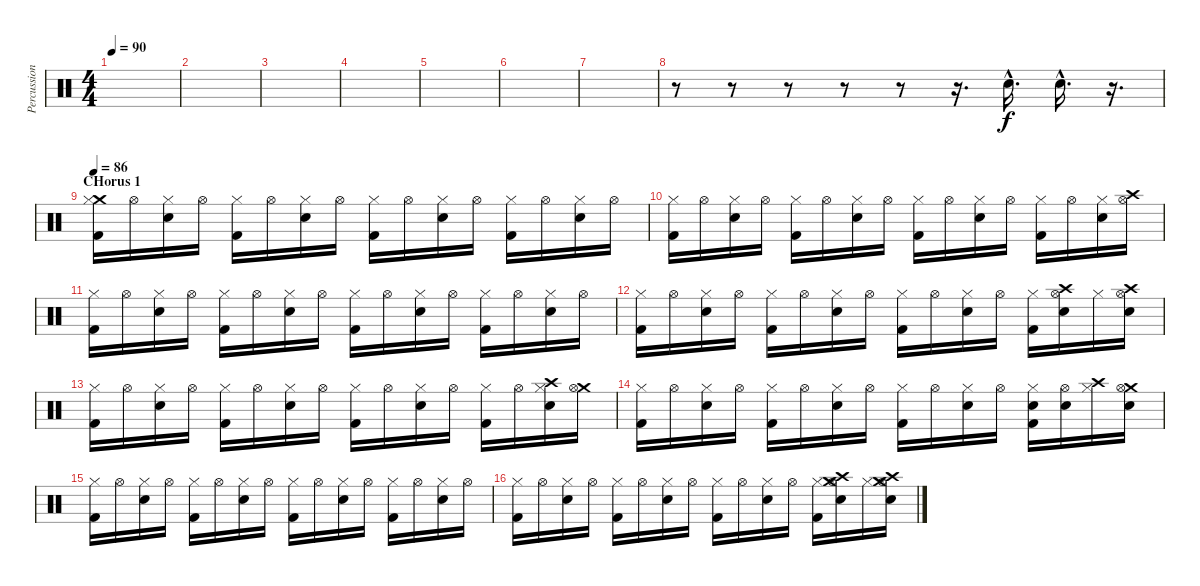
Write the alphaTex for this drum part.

\track ("Percussion" "Percussion") {instrument percussion}
\staff {score}
\articulation defaults
\ts (4 4)
\tempo 90
\clef neutral
\ks c
|
|
|
|
|
|
|
r.8 r.8 r.8 r.8 r.8 r.16{d} "Electric Snare (hit)"{hac}.16{d} "Electric Snare (hit)"{hac}.16{d} r.16{d} |
\section ("" "CHorus 1")
\tempo 86
("Crash medium (hit)" "Hi-Hat (closed)" "Kick (hit) 2").16 "Hi-Hat (open)".16 ("Hi-Hat (closed)" "Electric Snare (hit)").16 "Hi-Hat (open)".16 ("Hi-Hat (closed)" "Kick (hit) 2").16 "Hi-Hat (open)".16 ("Hi-Hat (closed)" "Electric Snare (hit)").16 "Hi-Hat (open)".16 ("Hi-Hat (closed)" "Kick (hit) 2").16 "Hi-Hat (open)".16 ("Hi-Hat (closed)" "Electric Snare (hit)").16 "Hi-Hat (open)".16 ("Hi-Hat (closed)" "Kick (hit) 2").16 "Hi-Hat (open)".16 ("Hi-Hat (closed)" "Electric Snare (hit)").16 "Hi-Hat (open)".16 |
("Hi-Hat (closed)" "Kick (hit) 2").16 "Hi-Hat (open)".16 ("Hi-Hat (closed)" "Electric Snare (hit)").16 "Hi-Hat (open)".16 ("Hi-Hat (closed)" "Kick (hit) 2").16 "Hi-Hat (open)".16 ("Hi-Hat (closed)" "Electric Snare (hit)").16 "Hi-Hat (open)".16 ("Hi-Hat (closed)" "Kick (hit) 2").16 "Hi-Hat (open)".16 ("Hi-Hat (closed)" "Electric Snare (hit)").16 "Hi-Hat (open)".16 ("Hi-Hat (closed)" "Kick (hit) 2").16 "Hi-Hat (open)".16 ("Hi-Hat (closed)" "Electric Snare (hit)").16 ("Crash high (hit)" "Hi-Hat (open)").16 |
("Hi-Hat (closed)" "Kick (hit) 2").16 "Hi-Hat (open)".16 ("Hi-Hat (closed)" "Electric Snare (hit)").16 "Hi-Hat (open)".16 ("Hi-Hat (closed)" "Kick (hit) 2").16 "Hi-Hat (open)".16 ("Hi-Hat (closed)" "Electric Snare (hit)").16 "Hi-Hat (open)".16 ("Hi-Hat (closed)" "Kick (hit) 2").16 "Hi-Hat (open)".16 ("Hi-Hat (closed)" "Electric Snare (hit)").16 "Hi-Hat (open)".16 ("Hi-Hat (closed)" "Kick (hit) 2").16 "Hi-Hat (open)".16 ("Hi-Hat (closed)" "Electric Snare (hit)").16 "Hi-Hat (open)".16 |
("Hi-Hat (closed)" "Kick (hit) 2").16 "Hi-Hat (open)".16 ("Hi-Hat (closed)" "Electric Snare (hit)").16 "Hi-Hat (open)".16 ("Hi-Hat (closed)" "Kick (hit) 2").16 "Hi-Hat (open)".16 ("Hi-Hat (closed)" "Electric Snare (hit)").16 "Hi-Hat (open)".16 ("Hi-Hat (closed)" "Kick (hit) 2").16 "Hi-Hat (open)".16 ("Hi-Hat (closed)" "Electric Snare (hit)").16 "Hi-Hat (open)".16 ("Hi-Hat (closed)" "Kick (hit) 2").16 ("Crash high (hit)" "Hi-Hat (open)" "Electric Snare (hit)").16 "Hi-Hat (closed)".16 ("Crash high (hit)" "Hi-Hat (open)" "Electric Snare (hit)").16 |
("Hi-Hat (closed)" "Kick (hit) 2").16 "Hi-Hat (open)".16 ("Hi-Hat (closed)" "Electric Snare (hit)").16 "Hi-Hat (open)".16 ("Hi-Hat (closed)" "Kick (hit) 2").16 "Hi-Hat (open)".16 ("Hi-Hat (closed)" "Electric Snare (hit)").16 "Hi-Hat (open)".16 ("Hi-Hat (closed)" "Kick (hit) 2").16 "Hi-Hat (open)".16 ("Hi-Hat (closed)" "Electric Snare (hit)").16 "Hi-Hat (open)".16 ("Hi-Hat (closed)" "Kick (hit) 2").16 "Hi-Hat (open)".16 ("Crash high (hit)" "Hi-Hat (closed)" "Electric Snare (hit)").16 ("Crash medium (hit)" "Hi-Hat (open)").16 |
("Hi-Hat (closed)" "Kick (hit) 2").16 "Hi-Hat (open)".16 ("Hi-Hat (closed)" "Electric Snare (hit)").16 "Hi-Hat (open)".16 ("Hi-Hat (closed)" "Kick (hit) 2").16 "Hi-Hat (open)".16 ("Hi-Hat (closed)" "Electric Snare (hit)").16 "Hi-Hat (open)".16 ("Hi-Hat (closed)" "Kick (hit) 2").16 "Hi-Hat (open)".16 ("Hi-Hat (closed)" "Electric Snare (hit)").16 "Hi-Hat (open)".16 ("Hi-Hat (closed)" "Electric Snare (hit)" "Kick (hit) 2").16 ("Hi-Hat (open)" "Electric Snare (hit)").16 ("Crash high (hit)" "Hi-Hat (closed)").16 ("Crash medium (hit)" "Hi-Hat (open)" "Electric Snare (hit)").16 |
("Hi-Hat (closed)" "Kick (hit) 2").16 "Hi-Hat (open)".16 ("Hi-Hat (closed)" "Electric Snare (hit)").16 "Hi-Hat (open)".16 ("Hi-Hat (closed)" "Kick (hit) 2").16 "Hi-Hat (open)".16 ("Hi-Hat (closed)" "Electric Snare (hit)").16 "Hi-Hat (open)".16 ("Hi-Hat (closed)" "Kick (hit) 2").16 "Hi-Hat (open)".16 ("Hi-Hat (closed)" "Electric Snare (hit)").16 "Hi-Hat (open)".16 ("Hi-Hat (closed)" "Kick (hit) 2").16 "Hi-Hat (open)".16 ("Hi-Hat (closed)" "Electric Snare (hit)").16 "Hi-Hat (open)".16 |
("Hi-Hat (closed)" "Kick (hit) 2").16 "Hi-Hat (open)".16 ("Hi-Hat (closed)" "Electric Snare (hit)").16 "Hi-Hat (open)".16 ("Hi-Hat (closed)" "Kick (hit) 2").16 "Hi-Hat (open)".16 ("Hi-Hat (closed)" "Electric Snare (hit)").16 "Hi-Hat (open)".16 ("Hi-Hat (closed)" "Kick (hit) 2").16 "Hi-Hat (open)".16 ("Hi-Hat (closed)" "Electric Snare (hit)").16 "Hi-Hat (open)".16 ("Hi-Hat (closed)" "Kick (hit) 2").16 ("Crash high (hit)" "Crash medium (hit)" "Hi-Hat (open)" "Electric Snare (hit)").16 "Hi-Hat (closed)".16 ("Crash high (hit)" "Crash medium (hit)" "Hi-Hat (open)" "Electric Snare (hit)").16
